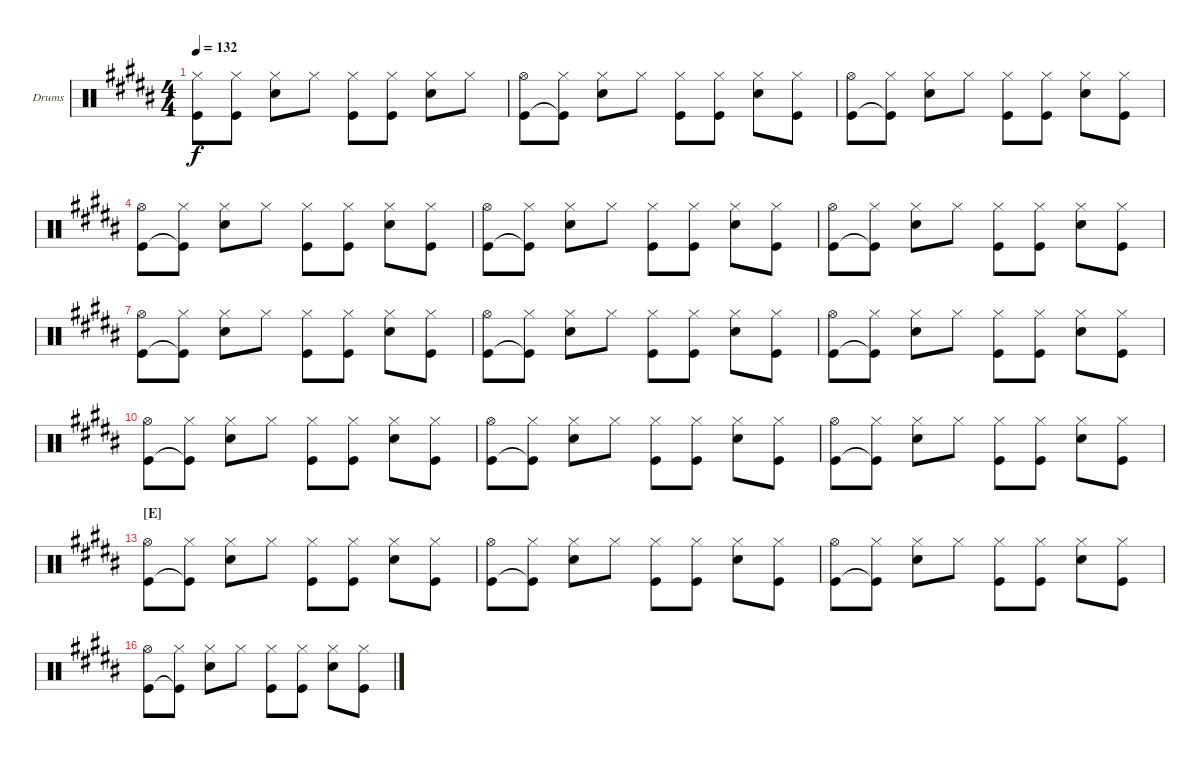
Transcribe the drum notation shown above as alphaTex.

\bracketExtendMode nobrackets
\firstSystemTrackNameOrientation horizontal
\otherSystemsTrackNameOrientation horizontal
\defaultBarNumberDisplay FirstOfSystem
\track ("Drumkit" "Drums") {instrument percussion}
\staff {score}
\articulation defaults
\ts (4 4)
\tempo 132
\clef neutral
\ks b
("Hi-Hat (closed)" "Kick (hit)").8{dy f} ("Hi-Hat (closed)" "Kick (hit)").8 ("Hi-Hat (closed)" "Snare (hit) 2").8 "Hi-Hat (closed)".8 ("Hi-Hat (closed)" "Kick (hit)").8 ("Hi-Hat (closed)" "Kick (hit)").8 ("Hi-Hat (closed)" "Snare (hit) 2").8 "Hi-Hat (closed)".8 |
("Hi-Hat (open)" "Kick (hit)").8 ("Hi-Hat (closed)" "Kick (hit)"{t}).8 ("Hi-Hat (closed)" "Snare (hit) 2").8 "Hi-Hat (closed)".8 ("Hi-Hat (closed)" "Kick (hit)").8 ("Hi-Hat (closed)" "Kick (hit)").8 ("Hi-Hat (closed)" "Snare (hit) 2").8 ("Hi-Hat (closed)" "Kick (hit)").8 |
("Hi-Hat (open)" "Kick (hit)").8 ("Hi-Hat (closed)" "Kick (hit)"{t}).8 ("Hi-Hat (closed)" "Snare (hit) 2").8 "Hi-Hat (closed)".8 ("Hi-Hat (closed)" "Kick (hit)").8 ("Hi-Hat (closed)" "Kick (hit)").8 ("Hi-Hat (closed)" "Snare (hit) 2").8 ("Hi-Hat (closed)" "Kick (hit)").8 |
("Hi-Hat (open)" "Kick (hit)").8 ("Hi-Hat (closed)" "Kick (hit)"{t}).8 ("Hi-Hat (closed)" "Snare (hit) 2").8 "Hi-Hat (closed)".8 ("Hi-Hat (closed)" "Kick (hit)").8 ("Hi-Hat (closed)" "Kick (hit)").8 ("Hi-Hat (closed)" "Snare (hit) 2").8 ("Hi-Hat (closed)" "Kick (hit)").8 |
("Hi-Hat (open)" "Kick (hit)").8 ("Hi-Hat (closed)" "Kick (hit)"{t}).8 ("Hi-Hat (closed)" "Snare (hit) 2").8 "Hi-Hat (closed)".8 ("Hi-Hat (closed)" "Kick (hit)").8 ("Hi-Hat (closed)" "Kick (hit)").8 ("Hi-Hat (closed)" "Snare (hit) 2").8 ("Hi-Hat (closed)" "Kick (hit)").8 |
("Hi-Hat (open)" "Kick (hit)").8 ("Hi-Hat (closed)" "Kick (hit)"{t}).8 ("Hi-Hat (closed)" "Snare (hit) 2").8 "Hi-Hat (closed)".8 ("Hi-Hat (closed)" "Kick (hit)").8 ("Hi-Hat (closed)" "Kick (hit)").8 ("Hi-Hat (closed)" "Snare (hit) 2").8 ("Hi-Hat (closed)" "Kick (hit)").8 |
("Hi-Hat (open)" "Kick (hit)").8 ("Hi-Hat (closed)" "Kick (hit)"{t}).8 ("Hi-Hat (closed)" "Snare (hit) 2").8 "Hi-Hat (closed)".8 ("Hi-Hat (closed)" "Kick (hit)").8 ("Hi-Hat (closed)" "Kick (hit)").8 ("Hi-Hat (closed)" "Snare (hit) 2").8 ("Hi-Hat (closed)" "Kick (hit)").8 |
("Hi-Hat (open)" "Kick (hit)").8 ("Hi-Hat (closed)" "Kick (hit)"{t}).8 ("Hi-Hat (closed)" "Snare (hit) 2").8 "Hi-Hat (closed)".8 ("Hi-Hat (closed)" "Kick (hit)").8 ("Hi-Hat (closed)" "Kick (hit)").8 ("Hi-Hat (closed)" "Snare (hit) 2").8 ("Hi-Hat (closed)" "Kick (hit)").8 |
("Hi-Hat (open)" "Kick (hit)").8 ("Hi-Hat (closed)" "Kick (hit)"{t}).8 ("Hi-Hat (closed)" "Snare (hit) 2").8 "Hi-Hat (closed)".8 ("Hi-Hat (closed)" "Kick (hit)").8 ("Hi-Hat (closed)" "Kick (hit)").8 ("Hi-Hat (closed)" "Snare (hit) 2").8 ("Hi-Hat (closed)" "Kick (hit)").8 |
("Hi-Hat (open)" "Kick (hit)").8 ("Hi-Hat (closed)" "Kick (hit)"{t}).8 ("Hi-Hat (closed)" "Snare (hit) 2").8 "Hi-Hat (closed)".8 ("Hi-Hat (closed)" "Kick (hit)").8 ("Hi-Hat (closed)" "Kick (hit)").8 ("Hi-Hat (closed)" "Snare (hit) 2").8 ("Hi-Hat (closed)" "Kick (hit)").8 |
("Hi-Hat (open)" "Kick (hit)").8 ("Hi-Hat (closed)" "Kick (hit)"{t}).8 ("Hi-Hat (closed)" "Snare (hit) 2").8 "Hi-Hat (closed)".8 ("Hi-Hat (closed)" "Kick (hit)").8 ("Hi-Hat (closed)" "Kick (hit)").8 ("Hi-Hat (closed)" "Snare (hit) 2").8 ("Hi-Hat (closed)" "Kick (hit)").8 |
("Hi-Hat (open)" "Kick (hit)").8 ("Hi-Hat (closed)" "Kick (hit)"{t}).8 ("Hi-Hat (closed)" "Snare (hit) 2").8 "Hi-Hat (closed)".8 ("Hi-Hat (closed)" "Kick (hit)").8 ("Hi-Hat (closed)" "Kick (hit)").8 ("Hi-Hat (closed)" "Snare (hit) 2").8 ("Hi-Hat (closed)" "Kick (hit)").8 |
\section ("E" "")
("Hi-Hat (open)" "Kick (hit)").8 ("Hi-Hat (closed)" "Kick (hit)"{t}).8 ("Hi-Hat (closed)" "Snare (hit) 2").8 "Hi-Hat (closed)".8 ("Hi-Hat (closed)" "Kick (hit)").8 ("Hi-Hat (closed)" "Kick (hit)").8 ("Hi-Hat (closed)" "Snare (hit) 2").8 ("Hi-Hat (closed)" "Kick (hit)").8 |
("Hi-Hat (open)" "Kick (hit)").8 ("Hi-Hat (closed)" "Kick (hit)"{t}).8 ("Hi-Hat (closed)" "Snare (hit) 2").8 "Hi-Hat (closed)".8 ("Hi-Hat (closed)" "Kick (hit)").8 ("Hi-Hat (closed)" "Kick (hit)").8 ("Hi-Hat (closed)" "Snare (hit) 2").8 ("Hi-Hat (closed)" "Kick (hit)").8 |
("Hi-Hat (open)" "Kick (hit)").8 ("Hi-Hat (closed)" "Kick (hit)"{t}).8 ("Hi-Hat (closed)" "Snare (hit) 2").8 "Hi-Hat (closed)".8 ("Hi-Hat (closed)" "Kick (hit)").8 ("Hi-Hat (closed)" "Kick (hit)").8 ("Hi-Hat (closed)" "Snare (hit) 2").8 ("Hi-Hat (closed)" "Kick (hit)").8 |
("Hi-Hat (open)" "Kick (hit)").8 ("Hi-Hat (closed)" "Kick (hit)"{t}).8 ("Hi-Hat (closed)" "Snare (hit) 2").8 "Hi-Hat (closed)".8 ("Hi-Hat (closed)" "Kick (hit)").8 ("Hi-Hat (closed)" "Kick (hit)").8 ("Hi-Hat (closed)" "Snare (hit) 2").8 ("Hi-Hat (closed)" "Kick (hit)").8
